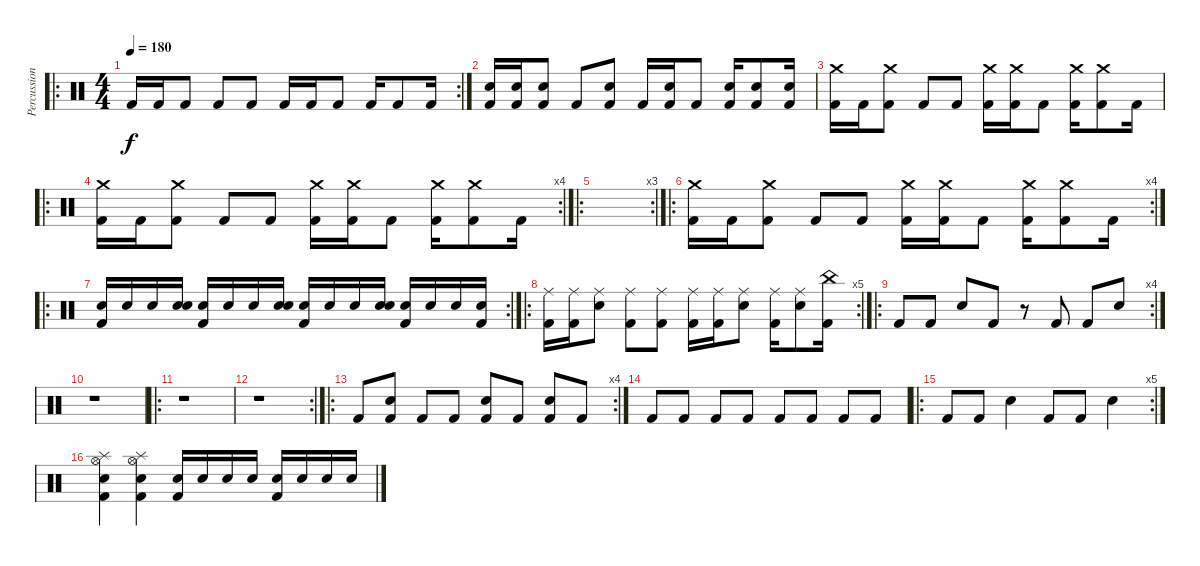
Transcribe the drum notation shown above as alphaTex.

\track ("Percussion" "Percussion") {instrument percussion}
\staff {score}
\articulation defaults
\ro
\rc 2
\ts (4 4)
\tempo 180
\clef neutral
\ks c "Kick (hit) 2".16{dy f} "Kick (hit) 2".16 "Kick (hit) 2".8 "Kick (hit) 2".8 "Kick (hit) 2".8 "Kick (hit) 2".16 "Kick (hit) 2".16 "Kick (hit) 2".8 "Kick (hit) 2".16 "Kick (hit) 2".8 "Kick (hit) 2".16
|
("Electric Snare (hit)" "Kick (hit) 2").16 ("Electric Snare (hit)" "Kick (hit) 2").16 ("Electric Snare (hit)" "Kick (hit) 2").8 "Kick (hit) 2".8 ("Electric Snare (hit)" "Kick (hit) 2").8 "Kick (hit) 2".16 ("Electric Snare (hit)" "Kick (hit) 2").16 "Kick (hit) 2".8 ("Electric Snare (hit)" "Kick (hit) 2").16 ("Electric Snare (hit)" "Kick (hit) 2").8 ("Electric Snare (hit)" "Kick (hit) 2").16 |
("Crash medium (hit)" "Kick (hit) 2").16 "Kick (hit) 2".16 ("Crash medium (hit)" "Kick (hit) 2").8 "Kick (hit) 2".8 "Kick (hit) 2".8 ("Crash medium (hit)" "Kick (hit) 2").16 ("Crash medium (hit)" "Kick (hit) 2").16 "Kick (hit) 2".8 ("Crash medium (hit)" "Kick (hit) 2").16 ("Crash medium (hit)" "Kick (hit) 2").8 "Kick (hit) 2".16 |
\ro
\rc 4
("Crash medium (hit)" "Kick (hit) 2").16 "Kick (hit) 2".16 ("Crash medium (hit)" "Kick (hit) 2").8 "Kick (hit) 2".8 "Kick (hit) 2".8 ("Crash medium (hit)" "Kick (hit) 2").16 ("Crash medium (hit)" "Kick (hit) 2").16 "Kick (hit) 2".8 ("Crash medium (hit)" "Kick (hit) 2").16 ("Crash medium (hit)" "Kick (hit) 2").8 "Kick (hit) 2".16 |
\ro
\rc 3
|
\ro
\rc 4
("Crash medium (hit)" "Kick (hit) 2").16 "Kick (hit) 2".16 ("Crash medium (hit)" "Kick (hit) 2").8 "Kick (hit) 2".8 "Kick (hit) 2".8 ("Crash medium (hit)" "Kick (hit) 2").16 ("Crash medium (hit)" "Kick (hit) 2").16 "Kick (hit) 2".8 ("Crash medium (hit)" "Kick (hit) 2").16 ("Crash medium (hit)" "Kick (hit) 2").8 "Kick (hit) 2".16 |
\ro
\rc 2
("Kick (hit) 2" "Electric Snare (hit)").16 "Electric Snare (hit)".16 "Electric Snare (hit)".16 ("Snare (hit)" "Electric Snare (hit)").16 ("Kick (hit) 2" "Electric Snare (hit)").16 "Electric Snare (hit)".16 "Electric Snare (hit)".16 ("Snare (hit)" "Electric Snare (hit)").16 ("Kick (hit) 2" "Electric Snare (hit)").16 "Electric Snare (hit)".16 "Electric Snare (hit)".16 ("Snare (hit)" "Electric Snare (hit)").16 ("Kick (hit) 2" "Electric Snare (hit)").16 "Electric Snare (hit)".16 "Electric Snare (hit)".16 ("Kick (hit) 2" "Electric Snare (hit)").16 |
\ro
\rc 5
("Ride (middle)" "Kick (hit) 2").16 ("Ride (middle)" "Kick (hit) 2").16 ("Ride (middle)" "Electric Snare (hit)").8 ("Ride (middle)" "Kick (hit) 2").8 ("Ride (middle)" "Kick (hit) 2").8 ("Ride (middle)" "Kick (hit) 2").16 ("Ride (middle)" "Kick (hit) 2").16 ("Ride (middle)" "Electric Snare (hit)").8 ("Ride (middle)" "Kick (hit) 2").16 ("Ride (middle)" "Electric Snare (hit)").8 ("China (hit)" "Kick (hit) 2").16 |
\ro
\rc 4 "Kick (hit) 2".8 "Kick (hit) 2".8 "Electric Snare (hit)".8 "Kick (hit) 2".8
r.8 "Kick (hit) 2".8 "Kick (hit) 2".8 "Electric Snare (hit)".8 |
r.1 |
\ro
r.1 |
\rc 2
r.1 |
\ro
\rc 4 "Kick (hit) 2".8
("Electric Snare (hit)" "Kick (hit) 2").8 "Kick (hit) 2".8 "Kick (hit) 2".8 ("Electric Snare (hit)" "Kick (hit) 2").8 "Kick (hit) 2".8 ("Electric Snare (hit)" "Kick (hit) 2").8 "Kick (hit) 2".8 |
"Kick (hit) 2".8 "Kick (hit) 2".8 "Kick (hit) 2".8 "Kick (hit) 2".8 "Kick (hit) 2".8 "Kick (hit) 2".8 "Kick (hit) 2".8 "Kick (hit) 2".8 |
\ro
\rc 5 "Kick (hit) 2".8 "Kick (hit) 2".8 "Electric Snare (hit)".4 "Kick (hit) 2".8 "Kick (hit) 2".8 "Electric Snare (hit)".4
|
("Hi-Hat (open)" "Splash (hit)" "Electric Snare (hit)" "Kick (hit) 2").4 ("Hi-Hat (open)" "Splash (hit)" "Electric Snare (hit)" "Kick (hit) 2").4 ("Kick (hit) 2" "Electric Snare (hit)").16 "Electric Snare (hit)".16 "Electric Snare (hit)".16 "Electric Snare (hit)".16 ("Kick (hit) 2" "Electric Snare (hit)").16 "Electric Snare (hit)".16 "Electric Snare (hit)".16 "Electric Snare (hit)".16
